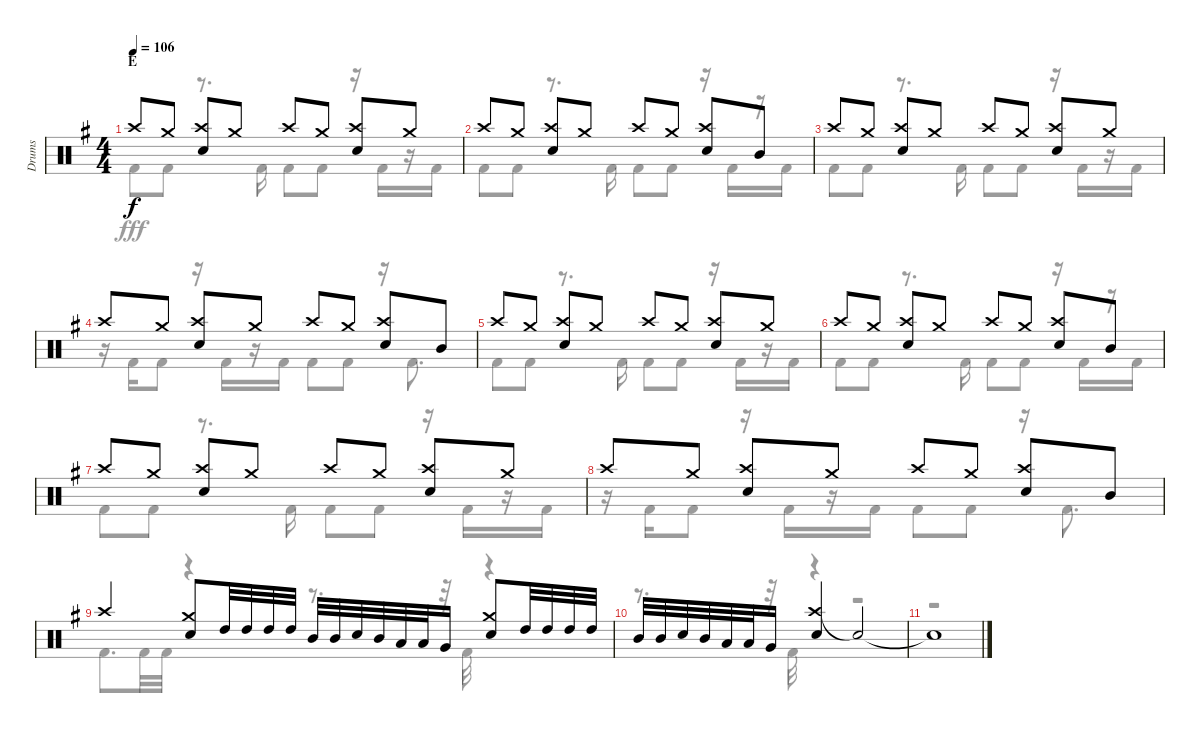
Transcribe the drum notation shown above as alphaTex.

\track ("Drums" "Drums") {instrument percussion}
\staff {score}
\articulation defaults
\voice
\ts (4 4)
\section ("" "E")
\tempo 106
\clef neutral
\ks g "Crash high (hit)".8{dy f} "Crash medium (hit)".8
("Crash high (hit)" "Snare (hit) 2").8 "Crash medium (hit)".8 "Crash high (hit)".8 "Crash medium (hit)".8 ("Crash high (hit)" "Snare (hit) 2").8 "Crash medium (hit)".8 |
"Crash high (hit)".8 "Crash medium (hit)".8 ("Crash high (hit)" "Snare (hit) 2").8 "Crash medium (hit)".8 "Crash high (hit)".8 "Crash medium (hit)".8 ("Crash high (hit)" "Snare (hit) 2").8 "Mid Tom (hit)".8 |
"Crash high (hit)".8 "Crash medium (hit)".8 ("Crash high (hit)" "Snare (hit) 2").8 "Crash medium (hit)".8 "Crash high (hit)".8 "Crash medium (hit)".8 ("Crash high (hit)" "Snare (hit) 2").8 "Crash medium (hit)".8 |
"Crash high (hit)".8 "Crash medium (hit)".8 ("Crash high (hit)" "Snare (hit) 2").8 "Crash medium (hit)".8 "Crash high (hit)".8 "Crash medium (hit)".8 ("Crash high (hit)" "Snare (hit) 2").8 "Mid Tom (hit)".8 |
"Crash high (hit)".8 "Crash medium (hit)".8 ("Crash high (hit)" "Snare (hit) 2").8 "Crash medium (hit)".8 "Crash high (hit)".8 "Crash medium (hit)".8 ("Crash high (hit)" "Snare (hit) 2").8 "Crash medium (hit)".8 |
"Crash high (hit)".8 "Crash medium (hit)".8 ("Crash high (hit)" "Snare (hit) 2").8 "Crash medium (hit)".8 "Crash high (hit)".8 "Crash medium (hit)".8 ("Crash high (hit)" "Snare (hit) 2").8 "Mid Tom (hit)".8 |
"Crash high (hit)".8 "Crash medium (hit)".8 ("Crash high (hit)" "Snare (hit) 2").8 "Crash medium (hit)".8 "Crash high (hit)".8 "Crash medium (hit)".8 ("Crash high (hit)" "Snare (hit) 2").8 "Crash medium (hit)".8 |
"Crash high (hit)".8 "Crash medium (hit)".8 ("Crash high (hit)" "Snare (hit) 2").8 "Crash medium (hit)".8 "Crash high (hit)".8 "Crash medium (hit)".8 ("Crash high (hit)" "Snare (hit) 2").8 "Mid Tom (hit)".8 |
"Crash high (hit)".4 ("Crash medium (hit)" "Snare (hit) 2").8 "High Tom (hit)".32 "High Tom (hit)".32 "High Tom (hit)".32 "High Tom (hit)".32 "Mid Tom (hit)".32 "Mid Tom (hit)".32 "Snare (hit) 2".32 "Mid Tom (hit)".32 "Low Tom (hit)".32 "Low Tom (hit)".32 "Very Low Tom (hit)".16 ("Crash medium (hit)" "Snare (hit) 2").8 "High Tom (hit)".32 "High Tom (hit)".32 "High Tom (hit)".32 "High Tom (hit)".32 |
"Mid Tom (hit)".32 "Mid Tom (hit)".32 "Snare (hit) 2".32 "Mid Tom (hit)".32 "Low Tom (hit)".32 "Low Tom (hit)".32 "Very Low Tom (hit)".16 ("Crash high (hit)" "Snare (hit) 2").4 "Snare (hit)"{t}.2 |
"Snare (hit)"{t}.1
\voice
\clef neutral
\ottava regular
\simile none
\ks g "Kick (hit) 2".8{dy fff} "Kick (hit) 2".8
r.8{d} "Kick (hit) 2".16 "Kick (hit) 2".8 "Kick (hit) 2".8 r.16 "Kick (hit) 2".16 r.16 "Kick (hit) 2".16 |
"Kick (hit) 2".8 "Kick (hit) 2".8 r.8{d} "Kick (hit) 2".16 "Kick (hit) 2".8 "Kick (hit) 2".8 r.16 "Kick (hit) 2".16 r.16 "Kick (hit) 2".16 |
"Kick (hit) 2".8 "Kick (hit) 2".8 r.8{d} "Kick (hit) 2".16 "Kick (hit) 2".8 "Kick (hit) 2".8 r.16 "Kick (hit) 2".16 r.16 "Kick (hit) 2".16 |
r.16 "Kick (hit) 2".16 "Kick (hit) 2".8 r.16 "Kick (hit) 2".16 r.16 "Kick (hit) 2".16 "Kick (hit) 2".8 "Kick (hit) 2".8 r.16 "Kick (hit) 2".8{d} |
"Kick (hit) 2".8 "Kick (hit) 2".8 r.8{d} "Kick (hit) 2".16 "Kick (hit) 2".8 "Kick (hit) 2".8 r.16 "Kick (hit) 2".16 r.16 "Kick (hit) 2".16 |
"Kick (hit) 2".8 "Kick (hit) 2".8 r.8{d} "Kick (hit) 2".16 "Kick (hit) 2".8 "Kick (hit) 2".8 r.16 "Kick (hit) 2".16 r.16 "Kick (hit) 2".16 |
"Kick (hit) 2".8 "Kick (hit) 2".8 r.8{d} "Kick (hit) 2".16 "Kick (hit) 2".8 "Kick (hit) 2".8 r.16 "Kick (hit) 2".16 r.16 "Kick (hit) 2".16 |
r.16 "Kick (hit) 2".16 "Kick (hit) 2".8 r.16 "Kick (hit) 2".16 r.16 "Kick (hit) 2".16 "Kick (hit) 2".8 "Kick (hit) 2".8 r.16 "Kick (hit) 2".8{d} |
"Kick (hit) 2".8{d} "Kick (hit) 2".32 "Kick (hit) 2".32 r.4 r.8{d} r.32 "Kick (hit) 2".32 r.4 |
r.8{d} r.32 "Kick (hit) 2".32 r.4 r.2 |
r.1
